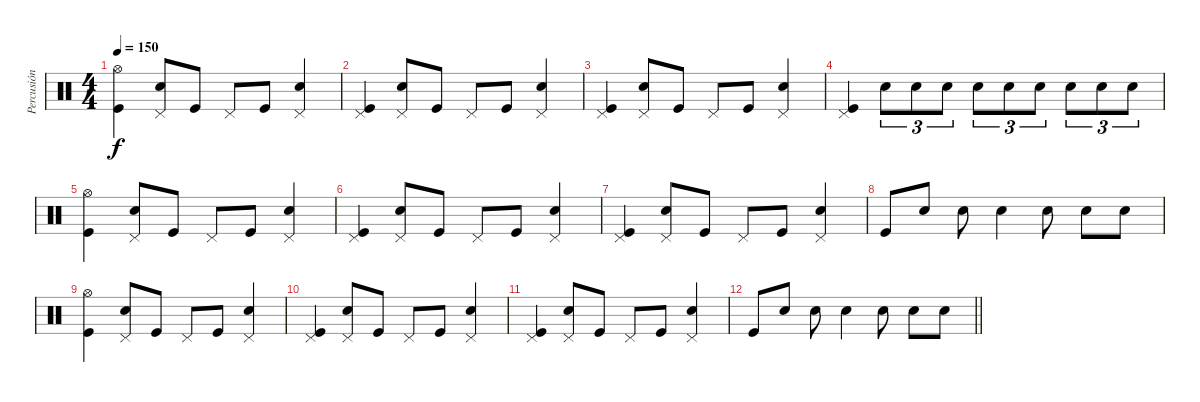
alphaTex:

\track ("Percusión" "Percusión") {instrument percussion}
\staff {score}
\articulation defaults
\ts (4 4)
\tempo 150
\clef neutral
\ks c
("Kick (hit)" "Hi-Hat (open)").4{dy f} ("Snare (hit) 2" "Pedal Hi-Hat (hit)").8 "Kick (hit)".8 "Pedal Hi-Hat (hit)".8 "Kick (hit)".8 ("Snare (hit) 2" "Pedal Hi-Hat (hit)").4 |
("Kick (hit)" "Pedal Hi-Hat (hit)").4 ("Snare (hit) 2" "Pedal Hi-Hat (hit)").8 "Kick (hit)".8 "Pedal Hi-Hat (hit)".8 "Kick (hit)".8 ("Snare (hit) 2" "Pedal Hi-Hat (hit)").4 |
("Kick (hit)" "Pedal Hi-Hat (hit)").4 ("Snare (hit) 2" "Pedal Hi-Hat (hit)").8 "Kick (hit)".8 "Pedal Hi-Hat (hit)".8 "Kick (hit)".8 ("Snare (hit) 2" "Pedal Hi-Hat (hit)").4 |
("Kick (hit)" "Pedal Hi-Hat (hit)").4 "Snare (hit) 2".8{tu (3 2)} "Snare (hit) 2".8{tu (3 2)} "Snare (hit) 2".8{tu (3 2)} "Snare (hit) 2".8{tu (3 2)} "Snare (hit) 2".8{tu (3 2)} "Snare (hit) 2".8{tu (3 2)} "Snare (hit) 2".8{tu (3 2)} "Snare (hit) 2".8{tu (3 2)} "Snare (hit) 2".8{tu (3 2)} |
("Kick (hit)" "Hi-Hat (open)").4 ("Snare (hit) 2" "Pedal Hi-Hat (hit)").8 "Kick (hit)".8 "Pedal Hi-Hat (hit)".8 "Kick (hit)".8 ("Snare (hit) 2" "Pedal Hi-Hat (hit)").4 |
("Kick (hit)" "Pedal Hi-Hat (hit)").4 ("Snare (hit) 2" "Pedal Hi-Hat (hit)").8 "Kick (hit)".8 "Pedal Hi-Hat (hit)".8 "Kick (hit)".8 ("Snare (hit) 2" "Pedal Hi-Hat (hit)").4 |
("Kick (hit)" "Pedal Hi-Hat (hit)").4 ("Snare (hit) 2" "Pedal Hi-Hat (hit)").8 "Kick (hit)".8 "Pedal Hi-Hat (hit)".8 "Kick (hit)".8 ("Snare (hit) 2" "Pedal Hi-Hat (hit)").4 |
"Kick (hit)".8 "Snare (hit) 2".8 "Snare (hit) 2".8 "Snare (hit) 2".4 "Snare (hit) 2".8 "Snare (hit) 2".8 "Snare (hit) 2".8 |
("Kick (hit)" "Hi-Hat (open)").4 ("Snare (hit) 2" "Pedal Hi-Hat (hit)").8 "Kick (hit)".8 "Pedal Hi-Hat (hit)".8 "Kick (hit)".8 ("Snare (hit) 2" "Pedal Hi-Hat (hit)").4 |
("Kick (hit)" "Pedal Hi-Hat (hit)").4 ("Snare (hit) 2" "Pedal Hi-Hat (hit)").8 "Kick (hit)".8 "Pedal Hi-Hat (hit)".8 "Kick (hit)".8 ("Snare (hit) 2" "Pedal Hi-Hat (hit)").4 |
("Kick (hit)" "Pedal Hi-Hat (hit)").4 ("Snare (hit) 2" "Pedal Hi-Hat (hit)").8 "Kick (hit)".8 "Pedal Hi-Hat (hit)".8 "Kick (hit)".8 ("Snare (hit) 2" "Pedal Hi-Hat (hit)").4 |
\barLineRight lightlight "Kick (hit)".8 "Snare (hit) 2".8 "Snare (hit) 2".8 "Snare (hit) 2".4 "Snare (hit) 2".8 "Snare (hit) 2".8 "Snare (hit) 2".8
